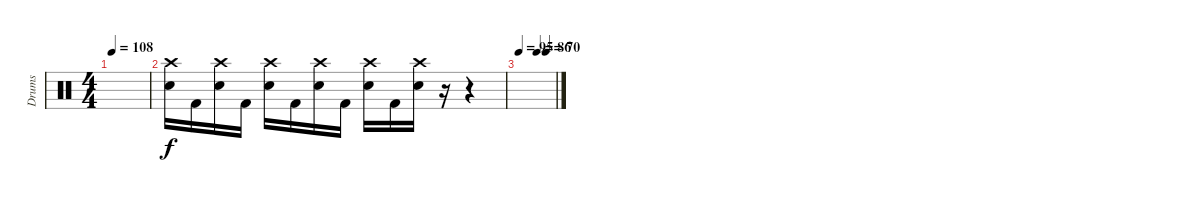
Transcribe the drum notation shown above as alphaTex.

\track ("Drums" "Drums") {instrument percussion}
\staff {score}
\articulation defaults
\ts (4 4)
\tempo 108
\clef neutral
\ks c
|
("Snare (hit) 2" "Crash high (hit)").16 "Kick (hit) 2".16 ("Snare (hit) 2" "Crash high (hit)").16 "Kick (hit) 2".16 ("Snare (hit) 2" "Crash high (hit)").16 "Kick (hit) 2".16 ("Snare (hit) 2" "Crash high (hit)").16 "Kick (hit) 2".16 ("Snare (hit) 2" "Crash high (hit)").16 "Kick (hit) 2".16 ("Snare (hit) 2" "Crash high (hit)").16 r.16 r.4 |
\tempo 95
\tempo (86 0.5)
\tempo (70 0.75)
